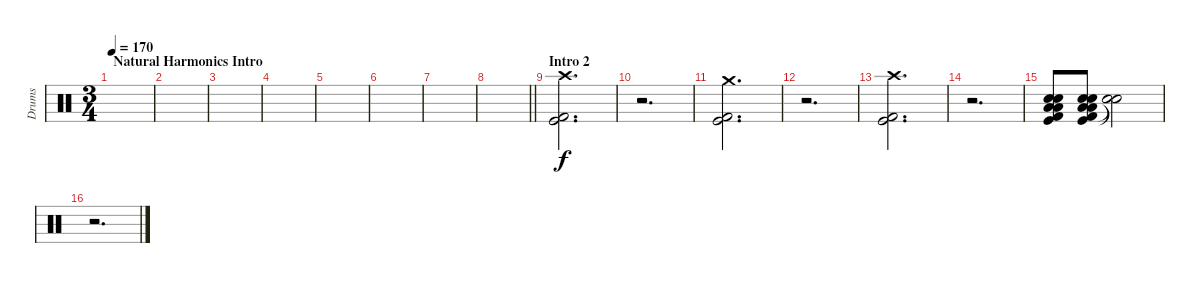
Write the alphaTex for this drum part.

\track ("Drums" "Drums") {instrument percussion}
\staff {score}
\articulation defaults
\ts (3 4)
\section ("" "Natural Harmonics Intro")
\tempo 170
\clef neutral
\ks c
|
|
|
|
|
|
|
\barLineRight lightlight
|
\section ("" "Intro 2")
("Crash high (hit)" "Kick (hit) 2" "Kick (hit)").2{d} |
r.2{d} |
("Crash medium (hit)" "Kick (hit) 2" "Kick (hit)").2{d} |
r.2{d} |
("Crash high (hit)" "Kick (hit) 2" "Kick (hit)").2{d} |
r.2{d} |
("Kick (hit)" "Kick (hit) 2" "Low Floor Tom (hit)" "Electric Snare (hit)" "Low Floor Tom (hit)" "Electric Snare (hit)").8 ("Kick (hit)" "Kick (hit) 2" "Low Floor Tom (hit)" "Electric Snare (hit)" "Low Floor Tom (hit)" "Electric Snare (hit)").8 ("Snare (hit)"{t} "Snare (hit)"{t}).2{dy f} |
r.2{d}
